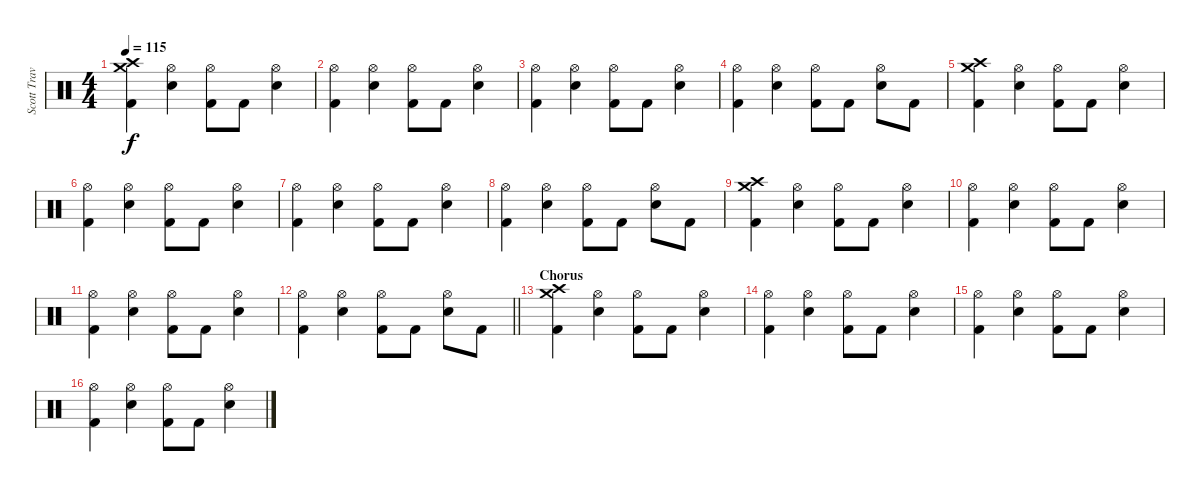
\track ("Scott Travis" "Scott Trav") {instrument percussion}
\staff {score}
\articulation defaults
\ts (4 4)
\tempo 115
\clef neutral
\ks c
("Crash medium (hit)" "Crash high (hit)" "Kick (hit) 2").4{dy f} ("Hi-Hat (open)" "Snare (hit) 2").4 ("Hi-Hat (open)" "Kick (hit) 2").8 "Kick (hit) 2".8 ("Hi-Hat (open)" "Snare (hit) 2").4 |
("Hi-Hat (open)" "Kick (hit) 2").4 ("Hi-Hat (open)" "Snare (hit) 2").4 ("Hi-Hat (open)" "Kick (hit) 2").8 "Kick (hit) 2".8 ("Hi-Hat (open)" "Snare (hit) 2").4 |
("Hi-Hat (open)" "Kick (hit) 2").4 ("Hi-Hat (open)" "Snare (hit) 2").4 ("Hi-Hat (open)" "Kick (hit) 2").8 "Kick (hit) 2".8 ("Hi-Hat (open)" "Snare (hit) 2").4 |
("Hi-Hat (open)" "Kick (hit) 2").4 ("Hi-Hat (open)" "Snare (hit) 2").4 ("Hi-Hat (open)" "Kick (hit) 2").8 "Kick (hit) 2".8 ("Hi-Hat (open)" "Snare (hit) 2").8 "Kick (hit) 2".8 |
("Crash medium (hit)" "Crash high (hit)" "Kick (hit) 2").4 ("Hi-Hat (open)" "Snare (hit) 2").4 ("Hi-Hat (open)" "Kick (hit) 2").8 "Kick (hit) 2".8 ("Hi-Hat (open)" "Snare (hit) 2").4 |
("Hi-Hat (open)" "Kick (hit) 2").4 ("Hi-Hat (open)" "Snare (hit) 2").4 ("Hi-Hat (open)" "Kick (hit) 2").8 "Kick (hit) 2".8 ("Hi-Hat (open)" "Snare (hit) 2").4 |
("Hi-Hat (open)" "Kick (hit) 2").4 ("Hi-Hat (open)" "Snare (hit) 2").4 ("Hi-Hat (open)" "Kick (hit) 2").8 "Kick (hit) 2".8 ("Hi-Hat (open)" "Snare (hit) 2").4 |
("Hi-Hat (open)" "Kick (hit) 2").4 ("Hi-Hat (open)" "Snare (hit) 2").4 ("Hi-Hat (open)" "Kick (hit) 2").8 "Kick (hit) 2".8 ("Hi-Hat (open)" "Snare (hit) 2").8 "Kick (hit) 2".8 |
("Crash medium (hit)" "Crash high (hit)" "Kick (hit) 2").4 ("Hi-Hat (open)" "Snare (hit) 2").4 ("Hi-Hat (open)" "Kick (hit) 2").8 "Kick (hit) 2".8 ("Hi-Hat (open)" "Snare (hit) 2").4 |
("Hi-Hat (open)" "Kick (hit) 2").4 ("Hi-Hat (open)" "Snare (hit) 2").4 ("Hi-Hat (open)" "Kick (hit) 2").8 "Kick (hit) 2".8 ("Hi-Hat (open)" "Snare (hit) 2").4 |
("Hi-Hat (open)" "Kick (hit) 2").4 ("Hi-Hat (open)" "Snare (hit) 2").4 ("Hi-Hat (open)" "Kick (hit) 2").8 "Kick (hit) 2".8 ("Hi-Hat (open)" "Snare (hit) 2").4 |
\barLineRight lightlight
("Hi-Hat (open)" "Kick (hit) 2").4 ("Hi-Hat (open)" "Snare (hit) 2").4 ("Hi-Hat (open)" "Kick (hit) 2").8 "Kick (hit) 2".8 ("Hi-Hat (open)" "Snare (hit) 2").8 "Kick (hit) 2".8 |
\section ("" "Chorus")
("Crash medium (hit)" "Crash high (hit)" "Kick (hit) 2").4 ("Hi-Hat (open)" "Snare (hit) 2").4 ("Hi-Hat (open)" "Kick (hit) 2").8 "Kick (hit) 2".8 ("Hi-Hat (open)" "Snare (hit) 2").4 |
("Hi-Hat (open)" "Kick (hit) 2").4 ("Hi-Hat (open)" "Snare (hit) 2").4 ("Hi-Hat (open)" "Kick (hit) 2").8 "Kick (hit) 2".8 ("Hi-Hat (open)" "Snare (hit) 2").4 |
("Hi-Hat (open)" "Kick (hit) 2").4 ("Hi-Hat (open)" "Snare (hit) 2").4 ("Hi-Hat (open)" "Kick (hit) 2").8 "Kick (hit) 2".8 ("Hi-Hat (open)" "Snare (hit) 2").4 |
("Hi-Hat (open)" "Kick (hit) 2").4 ("Hi-Hat (open)" "Snare (hit) 2").4 ("Hi-Hat (open)" "Kick (hit) 2").8 "Kick (hit) 2".8 ("Hi-Hat (open)" "Snare (hit) 2").4
